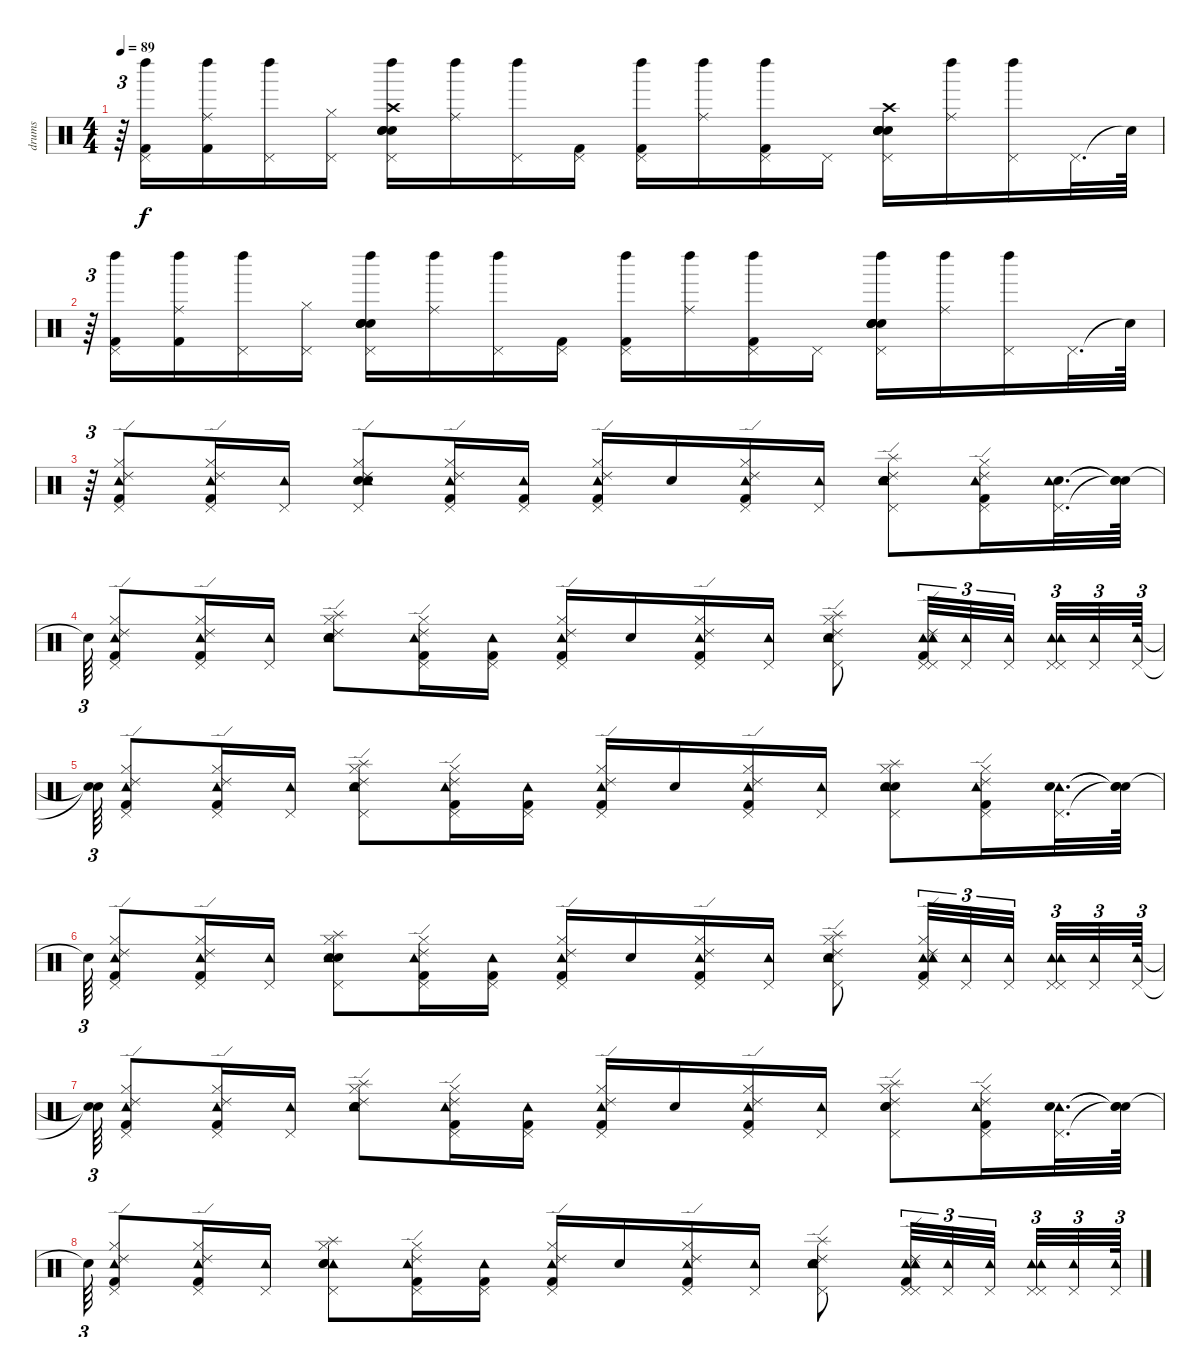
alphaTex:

\track ("drums" "drums") {instrument percussion}
\staff {score}
\articulation defaults
\ts (4 4)
\tempo 89
\clef neutral
\ks c
r.64{tu (3 2) dy f} ("Kick (hit) 2" "Pedal Hi-Hat (hit)" "Left Maraca (hit)").16 ("Left Maraca (hit)" "Ride (middle)" "Kick (hit) 2").16 ("Pedal Hi-Hat (hit)" "Left Maraca (hit)").16 ("Hi-Hat (closed)" "Pedal Hi-Hat (hit)").16 ("Left Maraca (hit)" "Crash high (hit)" "Hand Clap (hit)" "Hand Clap (hit)" "Electric Snare (hit)" "Pedal Hi-Hat (hit)").16 ("Ride (middle)" "Left Maraca (hit)").16 ("Pedal Hi-Hat (hit)" "Left Maraca (hit)").16 ("Pedal Hi-Hat (hit)" "Kick (hit) 2").16 ("Left Maraca (hit)" "Kick (hit) 2" "Pedal Hi-Hat (hit)").16 ("Ride (middle)" "Left Maraca (hit)").16 ("Kick (hit) 2" "Pedal Hi-Hat (hit)" "Left Maraca (hit)").16 "Pedal Hi-Hat (hit)".16 ("Pedal Hi-Hat (hit)" "Crash high (hit)" "Electric Snare (hit)" "Electric Snare (hit)" "Hand Clap (hit)" "Hand Clap (hit)").16 ("Ride (middle)" "Left Maraca (hit)").16 ("Left Maraca (hit)" "Pedal Hi-Hat (hit)").16 "Pedal Hi-Hat (hit)".32{d} "Snare (hit)"{t}.64 |
r.64{tu (3 2)} ("Pedal Hi-Hat (hit)" "Left Maraca (hit)" "Kick (hit) 2").16 ("Left Maraca (hit)" "Ride (middle)" "Kick (hit) 2").16 ("Pedal Hi-Hat (hit)" "Left Maraca (hit)").16 ("Pedal Hi-Hat (hit)" "Hi-Hat (closed)").16 ("Electric Snare (hit)" "Electric Snare (hit)" "Left Maraca (hit)" "Hand Clap (hit)" "Hand Clap (hit)" "Pedal Hi-Hat (hit)").16 ("Left Maraca (hit)" "Ride (middle)").16 ("Left Maraca (hit)" "Pedal Hi-Hat (hit)").16 ("Pedal Hi-Hat (hit)" "Kick (hit) 2").16 ("Pedal Hi-Hat (hit)" "Kick (hit) 2" "Left Maraca (hit)").16 ("Ride (middle)" "Left Maraca (hit)").16 ("Left Maraca (hit)" "Pedal Hi-Hat (hit)" "Kick (hit) 2").16 "Pedal Hi-Hat (hit)".16 ("Electric Snare (hit)" "Hand Clap (hit)" "Left Maraca (hit)" "Hand Clap (hit)" "Pedal Hi-Hat (hit)" "Electric Snare (hit)").16 ("Ride (middle)" "Left Maraca (hit)").16 ("Pedal Hi-Hat (hit)" "Left Maraca (hit)").16 "Pedal Hi-Hat (hit)".32{d} "Snare (hit)"{t}.64 |
r.64{tu (3 2)} ("Pedal Hi-Hat (hit)" "Kick (hit) 2" "Ride (edge) 2" "Hi-Hat (closed)" "Tambourine (hit)").8 ("Hi-Hat (closed)" "Tambourine (hit)" "Ride (edge) 2" "Kick (hit) 2" "Pedal Hi-Hat (hit)").16 ("Pedal Hi-Hat (hit)" "Tambourine (hit)").16 ("Electric Snare (hit)" "Pedal Hi-Hat (hit)" "Hi-Hat (closed)" "Ride (edge) 2" "Electric Snare (hit)" "Tambourine (hit)").8 ("Tambourine (hit)" "Ride (edge) 2" "Kick (hit) 2" "Hi-Hat (closed)" "Pedal Hi-Hat (hit)").16 ("Kick (hit) 2" "Tambourine (hit)" "Pedal Hi-Hat (hit)").16 ("Ride (edge) 2" "Hi-Hat (closed)" "Tambourine (hit)" "Kick (hit) 2" "Pedal Hi-Hat (hit)").16 "Electric Snare (hit)".16 ("Hi-Hat (closed)" "Tambourine (hit)" "Ride (edge) 2" "Pedal Hi-Hat (hit)" "Kick (hit) 2").16 ("Tambourine (hit)" "Pedal Hi-Hat (hit)").16 ("Splash (hit)" "Electric Snare (hit)" "Ride (edge) 2" "Pedal Hi-Hat (hit)" "Tambourine (hit)" "Electric Snare (hit)").8 ("Ride (edge) 2" "Kick (hit) 2" "Pedal Hi-Hat (hit)" "Tambourine (hit)" "Hi-Hat (closed)").16 ("Electric Snare (hit)" "Pedal Hi-Hat (hit)" "Tambourine (hit)").32{d} ("Snare (hit)"{t} "Snare (hit)"{t} "Snare (hit)"{t}).64 |
"Snare (hit)"{t}.64{tu (3 2)} ("Kick (hit) 2" "Hi-Hat (closed)" "Tambourine (hit)" "Pedal Hi-Hat (hit)" "Ride (edge) 2").8 ("Hi-Hat (closed)" "Kick (hit) 2" "Tambourine (hit)" "Pedal Hi-Hat (hit)" "Ride (edge) 2").16 ("Pedal Hi-Hat (hit)" "Tambourine (hit)").16 ("Electric Snare (hit)" "Splash (hit)" "Electric Snare (hit)" "Ride (edge) 2" "Hi-Hat (closed)" "Tambourine (hit)").8 ("Pedal Hi-Hat (hit)" "Hi-Hat (closed)" "Ride (edge) 2" "Tambourine (hit)" "Kick (hit) 2").16 ("Tambourine (hit)" "Pedal Hi-Hat (hit)" "Kick (hit) 2").16 ("Pedal Hi-Hat (hit)" "Ride (edge) 2" "Kick (hit) 2" "Hi-Hat (closed)" "Tambourine (hit)").16 "Electric Snare (hit)".16 ("Kick (hit) 2" "Ride (edge) 2" "Tambourine (hit)" "Hi-Hat (closed)" "Pedal Hi-Hat (hit)").16 ("Tambourine (hit)" "Pedal Hi-Hat (hit)").16 ("Pedal Hi-Hat (hit)" "Electric Snare (hit)" "Hi-Hat (closed)" "Tambourine (hit)" "Splash (hit)" "Ride (edge) 2").8 ("Pedal Hi-Hat (hit)" "Kick (hit) 2" "Pedal Hi-Hat (hit)" "Tambourine (hit)" "Tambourine (hit)" "Ride (edge) 2").32{tu (3 2)} ("Tambourine (hit)" "Pedal Hi-Hat (hit)").32{tu (3 2)} ("Tambourine (hit)" "Pedal Hi-Hat (hit)").32{tu (3 2) beam splitsecondary} ("Tambourine (hit)" "Tambourine (hit)" "Pedal Hi-Hat (hit)" "Pedal Hi-Hat (hit)").32{tu (3 2)} ("Tambourine (hit)" "Pedal Hi-Hat (hit)").32{tu (3 2)} ("Pedal Hi-Hat (hit)" "Tambourine (hit)").64{tu (3 2)} |
("Snare (hit)"{t} "Snare (hit)"{t}).64{tu (3 2)} ("Ride (edge) 2" "Tambourine (hit)" "Hi-Hat (closed)" "Kick (hit) 2" "Pedal Hi-Hat (hit)").8 ("Tambourine (hit)" "Kick (hit) 2" "Hi-Hat (closed)" "Ride (edge) 2" "Pedal Hi-Hat (hit)").16 ("Pedal Hi-Hat (hit)" "Tambourine (hit)").16 ("Hi-Hat (closed)" "Pedal Hi-Hat (hit)" "Splash (hit)" "Electric Snare (hit)" "Ride (edge) 2" "Tambourine (hit)").8 ("Tambourine (hit)" "Ride (edge) 2" "Kick (hit) 2" "Pedal Hi-Hat (hit)" "Hi-Hat (closed)").16 ("Kick (hit) 2" "Pedal Hi-Hat (hit)" "Tambourine (hit)").16 ("Ride (edge) 2" "Kick (hit) 2" "Hi-Hat (closed)" "Pedal Hi-Hat (hit)" "Tambourine (hit)").16 "Electric Snare (hit)".16 ("Hi-Hat (closed)" "Kick (hit) 2" "Ride (edge) 2" "Tambourine (hit)" "Pedal Hi-Hat (hit)").16 ("Tambourine (hit)" "Pedal Hi-Hat (hit)").16 ("Hi-Hat (closed)" "Electric Snare (hit)" "Splash (hit)" "Electric Snare (hit)" "Tambourine (hit)" "Pedal Hi-Hat (hit)").8 ("Pedal Hi-Hat (hit)" "Kick (hit) 2" "Tambourine (hit)" "Ride (edge) 2" "Hi-Hat (closed)").16 ("Tambourine (hit)" "Electric Snare (hit)" "Pedal Hi-Hat (hit)").32{d} ("Snare (hit)"{t} "Snare (hit)"{t} "Snare (hit)"{t}).64 |
"Snare (hit)"{t}.64{tu (3 2)} ("Pedal Hi-Hat (hit)" "Hi-Hat (closed)" "Ride (edge) 2" "Kick (hit) 2" "Tambourine (hit)").8 ("Kick (hit) 2" "Pedal Hi-Hat (hit)" "Tambourine (hit)" "Ride (edge) 2" "Hi-Hat (closed)").16 ("Pedal Hi-Hat (hit)" "Tambourine (hit)").16 ("Splash (hit)" "Pedal Hi-Hat (hit)" "Electric Snare (hit)" "Electric Snare (hit)" "Tambourine (hit)" "Hi-Hat (closed)").8 ("Hi-Hat (closed)" "Tambourine (hit)" "Kick (hit) 2" "Ride (edge) 2" "Pedal Hi-Hat (hit)").16 ("Pedal Hi-Hat (hit)" "Kick (hit) 2" "Tambourine (hit)").16 ("Kick (hit) 2" "Tambourine (hit)" "Ride (edge) 2" "Pedal Hi-Hat (hit)" "Hi-Hat (closed)").16 "Electric Snare (hit)".16 ("Kick (hit) 2" "Ride (edge) 2" "Tambourine (hit)" "Hi-Hat (closed)" "Pedal Hi-Hat (hit)").16 ("Tambourine (hit)" "Pedal Hi-Hat (hit)").16 ("Hi-Hat (closed)" "Electric Snare (hit)" "Tambourine (hit)" "Splash (hit)" "Ride (edge) 2" "Pedal Hi-Hat (hit)").8 ("Tambourine (hit)" "Kick (hit) 2" "Ride (edge) 2" "Hi-Hat (closed)" "Pedal Hi-Hat (hit)" "Tambourine (hit)").32{tu (3 2)} ("Tambourine (hit)" "Pedal Hi-Hat (hit)").32{tu (3 2)} ("Pedal Hi-Hat (hit)" "Tambourine (hit)").32{tu (3 2) beam splitsecondary} ("Tambourine (hit)" "Pedal Hi-Hat (hit)" "Pedal Hi-Hat (hit)" "Tambourine (hit)").32{tu (3 2)} ("Pedal Hi-Hat (hit)" "Tambourine (hit)").32{tu (3 2)} ("Tambourine (hit)" "Pedal Hi-Hat (hit)").64{tu (3 2)} |
("Snare (hit)"{t} "Snare (hit)"{t}).64{tu (3 2)} ("Pedal Hi-Hat (hit)" "Kick (hit) 2" "Hi-Hat (closed)" "Ride (edge) 2" "Tambourine (hit)").8 ("Ride (edge) 2" "Tambourine (hit)" "Kick (hit) 2" "Pedal Hi-Hat (hit)" "Hi-Hat (closed)").16 ("Tambourine (hit)" "Pedal Hi-Hat (hit)").16 ("Ride (edge) 2" "Tambourine (hit)" "Electric Snare (hit)" "Electric Snare (hit)" "Splash (hit)" "Hi-Hat (closed)").8 ("Hi-Hat (closed)" "Tambourine (hit)" "Kick (hit) 2" "Ride (edge) 2" "Pedal Hi-Hat (hit)").16 ("Pedal Hi-Hat (hit)" "Tambourine (hit)" "Kick (hit) 2").16 ("Hi-Hat (closed)" "Tambourine (hit)" "Kick (hit) 2" "Ride (edge) 2" "Pedal Hi-Hat (hit)").16 "Electric Snare (hit)".16 ("Tambourine (hit)" "Hi-Hat (closed)" "Pedal Hi-Hat (hit)" "Ride (edge) 2" "Kick (hit) 2").16 ("Pedal Hi-Hat (hit)" "Tambourine (hit)").16 ("Pedal Hi-Hat (hit)" "Electric Snare (hit)" "Hi-Hat (closed)" "Electric Snare (hit)" "Ride (edge) 2" "Splash (hit)").8 ("Ride (edge) 2" "Tambourine (hit)" "Kick (hit) 2" "Pedal Hi-Hat (hit)" "Hi-Hat (closed)").16 ("Tambourine (hit)" "Electric Snare (hit)" "Pedal Hi-Hat (hit)").32{d} ("Snare (hit)"{t} "Snare (hit)"{t} "Snare (hit)"{t}).64 |
"Snare (hit)"{t}.64{tu (3 2)} ("Pedal Hi-Hat (hit)" "Ride (edge) 2" "Tambourine (hit)" "Kick (hit) 2" "Hi-Hat (closed)").8 ("Ride (edge) 2" "Hi-Hat (closed)" "Kick (hit) 2" "Pedal Hi-Hat (hit)" "Tambourine (hit)").16 ("Tambourine (hit)" "Pedal Hi-Hat (hit)").16 ("Pedal Hi-Hat (hit)" "Splash (hit)" "Tambourine (hit)" "Hi-Hat (closed)" "Electric Snare (hit)" "Electric Snare (hit)").8 ("Hi-Hat (closed)" "Pedal Hi-Hat (hit)" "Tambourine (hit)" "Ride (edge) 2" "Kick (hit) 2").16 ("Tambourine (hit)" "Kick (hit) 2" "Pedal Hi-Hat (hit)").16 ("Ride (edge) 2" "Pedal Hi-Hat (hit)" "Tambourine (hit)" "Kick (hit) 2" "Hi-Hat (closed)").16 "Electric Snare (hit)".16 ("Ride (edge) 2" "Hi-Hat (closed)" "Kick (hit) 2" "Tambourine (hit)" "Pedal Hi-Hat (hit)").16 ("Pedal Hi-Hat (hit)" "Tambourine (hit)").16 ("Electric Snare (hit)" "Electric Snare (hit)" "Splash (hit)" "Tambourine (hit)" "Ride (edge) 2" "Pedal Hi-Hat (hit)").8 ("Pedal Hi-Hat (hit)" "Tambourine (hit)" "Pedal Hi-Hat (hit)" "Kick (hit) 2" "Tambourine (hit)" "Ride (edge) 2").32{tu (3 2)} ("Tambourine (hit)" "Pedal Hi-Hat (hit)").32{tu (3 2)} ("Pedal Hi-Hat (hit)" "Tambourine (hit)").32{tu (3 2) beam splitsecondary} ("Pedal Hi-Hat (hit)" "Tambourine (hit)" "Tambourine (hit)" "Pedal Hi-Hat (hit)").32{tu (3 2)} ("Tambourine (hit)" "Pedal Hi-Hat (hit)").32{tu (3 2)} ("Tambourine (hit)" "Pedal Hi-Hat (hit)").64{tu (3 2)}
